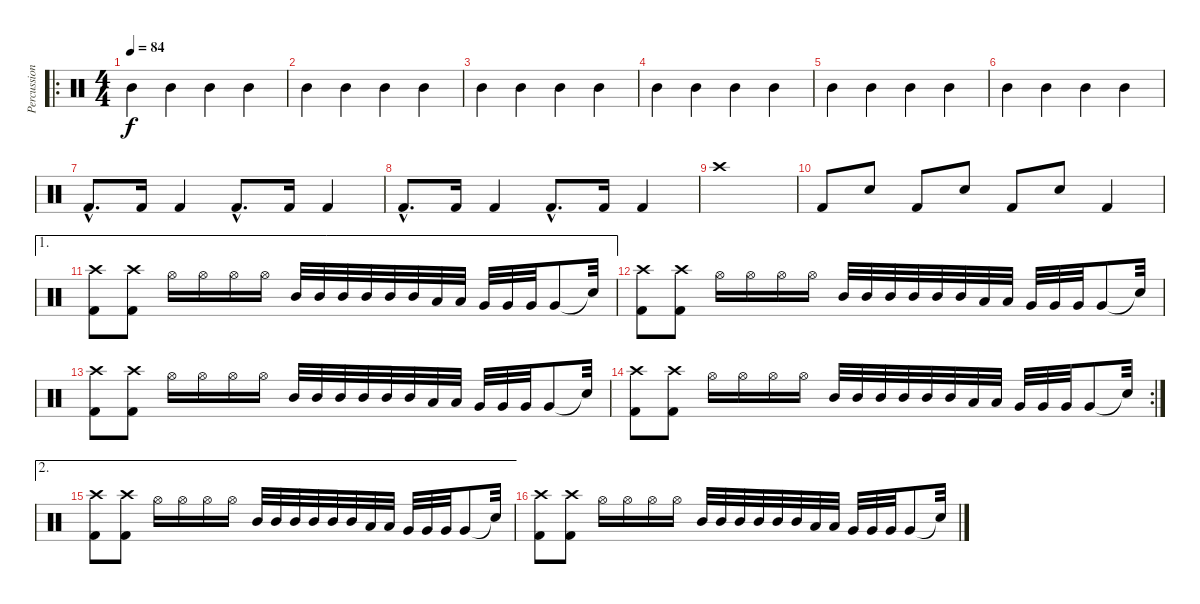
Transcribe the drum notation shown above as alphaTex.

\track ("Percussions" "Percussion") {instrument percussion}
\staff {score}
\articulation defaults
\ro
\ts (4 4)
\tempo 84
\clef neutral
\ks c "Mid Tom (hit)".4{dy f} "Mid Tom (hit)".4 "Mid Tom (hit)".4 "Mid Tom (hit)".4
|
"Mid Tom (hit)".4 "Mid Tom (hit)".4 "Mid Tom (hit)".4 "Mid Tom (hit)".4 |
"Mid Tom (hit)".4 "Mid Tom (hit)".4 "Mid Tom (hit)".4 "Mid Tom (hit)".4 |
"Mid Tom (hit)".4 "Mid Tom (hit)".4 "Mid Tom (hit)".4 "Mid Tom (hit)".4 |
"Mid Tom (hit)".4 "Mid Tom (hit)".4 "Mid Tom (hit)".4 "Mid Tom (hit)".4 |
"Mid Tom (hit)".4 "Mid Tom (hit)".4 "Mid Tom (hit)".4 "Mid Tom (hit)".4 |
"Kick (hit) 2"{hac}.8{d} "Kick (hit) 2".16 "Kick (hit) 2".4 "Kick (hit) 2"{hac}.8{d} "Kick (hit) 2".16 "Kick (hit) 2".4 |
"Kick (hit) 2"{hac}.8{d} "Kick (hit) 2".16 "Kick (hit) 2".4 "Kick (hit) 2"{hac}.8{d} "Kick (hit) 2".16 "Kick (hit) 2".4 |
"Crash high (hit)".1 |
"Kick (hit) 2".8 "Electric Snare (hit)".8 "Kick (hit) 2".8 "Electric Snare (hit)".8 "Kick (hit) 2".8 "Electric Snare (hit)".8 "Kick (hit) 2".4 |
\ae 1
("Kick (hit) 2" "Crash high (hit)").8 ("Kick (hit) 2" "Crash high (hit)").8 "Hi-Hat (open)".16 "Hi-Hat (open)".16 "Hi-Hat (open)".16 "Hi-Hat (open)".16 "Mid Tom (hit)".32 "Mid Tom (hit)".32 "Mid Tom (hit)".32 "Mid Tom (hit)".32 "Mid Tom (hit)".32 "Mid Tom (hit)".32 "Low Tom (hit)".32 "Low Tom (hit)".32 "Very Low Tom (hit)".32 "Very Low Tom (hit)".32 "Very Low Tom (hit)".32 "Very Low Tom (hit)".8 "Snare (hit)"{t}.32 |
("Kick (hit) 2" "Crash high (hit)").8 ("Kick (hit) 2" "Crash high (hit)").8 "Hi-Hat (open)".16 "Hi-Hat (open)".16 "Hi-Hat (open)".16 "Hi-Hat (open)".16 "Mid Tom (hit)".32 "Mid Tom (hit)".32 "Mid Tom (hit)".32 "Mid Tom (hit)".32 "Mid Tom (hit)".32 "Mid Tom (hit)".32 "Low Tom (hit)".32 "Low Tom (hit)".32 "Very Low Tom (hit)".32 "Very Low Tom (hit)".32 "Very Low Tom (hit)".32 "Very Low Tom (hit)".8 "Snare (hit)"{t}.32 |
("Kick (hit) 2" "Crash high (hit)").8 ("Kick (hit) 2" "Crash high (hit)").8 "Hi-Hat (open)".16 "Hi-Hat (open)".16 "Hi-Hat (open)".16 "Hi-Hat (open)".16 "Mid Tom (hit)".32 "Mid Tom (hit)".32 "Mid Tom (hit)".32 "Mid Tom (hit)".32 "Mid Tom (hit)".32 "Mid Tom (hit)".32 "Low Tom (hit)".32 "Low Tom (hit)".32 "Very Low Tom (hit)".32 "Very Low Tom (hit)".32 "Very Low Tom (hit)".32 "Very Low Tom (hit)".8 "Snare (hit)"{t}.32 |
\rc 2
("Kick (hit) 2" "Crash high (hit)").8 ("Kick (hit) 2" "Crash high (hit)").8 "Hi-Hat (open)".16 "Hi-Hat (open)".16 "Hi-Hat (open)".16 "Hi-Hat (open)".16 "Mid Tom (hit)".32 "Mid Tom (hit)".32 "Mid Tom (hit)".32 "Mid Tom (hit)".32 "Mid Tom (hit)".32 "Mid Tom (hit)".32 "Low Tom (hit)".32 "Low Tom (hit)".32 "Very Low Tom (hit)".32 "Very Low Tom (hit)".32 "Very Low Tom (hit)".32 "Very Low Tom (hit)".8 "Snare (hit)"{t}.32 |
\ae 2
("Kick (hit) 2" "Crash high (hit)").8 ("Kick (hit) 2" "Crash high (hit)").8 "Hi-Hat (open)".16 "Hi-Hat (open)".16 "Hi-Hat (open)".16 "Hi-Hat (open)".16 "Mid Tom (hit)".32 "Mid Tom (hit)".32 "Mid Tom (hit)".32 "Mid Tom (hit)".32 "Mid Tom (hit)".32 "Mid Tom (hit)".32 "Low Tom (hit)".32 "Low Tom (hit)".32 "Very Low Tom (hit)".32 "Very Low Tom (hit)".32 "Very Low Tom (hit)".32 "Very Low Tom (hit)".8 "Snare (hit)"{t}.32 |
("Kick (hit) 2" "Crash high (hit)").8 ("Kick (hit) 2" "Crash high (hit)").8 "Hi-Hat (open)".16 "Hi-Hat (open)".16 "Hi-Hat (open)".16 "Hi-Hat (open)".16 "Mid Tom (hit)".32 "Mid Tom (hit)".32 "Mid Tom (hit)".32 "Mid Tom (hit)".32 "Mid Tom (hit)".32 "Mid Tom (hit)".32 "Low Tom (hit)".32 "Low Tom (hit)".32 "Very Low Tom (hit)".32 "Very Low Tom (hit)".32 "Very Low Tom (hit)".32 "Very Low Tom (hit)".8 "Snare (hit)"{t}.32
